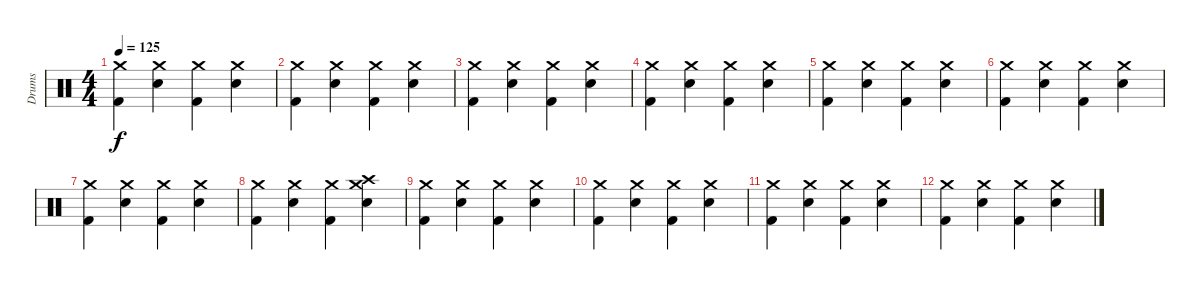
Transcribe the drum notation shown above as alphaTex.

\track ("Drums" "Drums") {instrument percussion}
\staff {score}
\articulation defaults
\ts (4 4)
\tempo 125
\clef neutral
\ks c
("Kick (hit) 2" "Crash medium (hit)").4{dy f} ("Electric Snare (hit)" "Crash medium (hit)").4 ("Kick (hit) 2" "Crash medium (hit)").4 ("Electric Snare (hit)" "Crash medium (hit)").4 |
("Kick (hit) 2" "Crash medium (hit)").4 ("Electric Snare (hit)" "Crash medium (hit)").4 ("Kick (hit) 2" "Crash medium (hit)").4 ("Electric Snare (hit)" "Crash medium (hit)").4 |
("Kick (hit) 2" "Crash medium (hit)").4 ("Electric Snare (hit)" "Crash medium (hit)").4 ("Kick (hit) 2" "Crash medium (hit)").4 ("Electric Snare (hit)" "Crash medium (hit)").4 |
("Kick (hit) 2" "Crash medium (hit)").4 ("Electric Snare (hit)" "Crash medium (hit)").4 ("Kick (hit) 2" "Crash medium (hit)").4 ("Electric Snare (hit)" "Crash medium (hit)").4 |
("Kick (hit) 2" "Crash medium (hit)").4 ("Electric Snare (hit)" "Crash medium (hit)").4 ("Kick (hit) 2" "Crash medium (hit)").4 ("Electric Snare (hit)" "Crash medium (hit)").4 |
("Kick (hit) 2" "Crash medium (hit)").4 ("Electric Snare (hit)" "Crash medium (hit)").4 ("Kick (hit) 2" "Crash medium (hit)").4 ("Electric Snare (hit)" "Crash medium (hit)").4 |
("Kick (hit) 2" "Crash medium (hit)").4 ("Electric Snare (hit)" "Crash medium (hit)").4 ("Kick (hit) 2" "Crash medium (hit)").4 ("Electric Snare (hit)" "Crash medium (hit)").4 |
("Kick (hit) 2" "Crash medium (hit)").4 ("Electric Snare (hit)" "Crash medium (hit)").4 ("Kick (hit) 2" "Crash medium (hit)").4 ("Electric Snare (hit)" "Crash medium (hit)" "Crash high (hit)").4 |
("Kick (hit) 2" "Crash medium (hit)").4 ("Electric Snare (hit)" "Crash medium (hit)").4 ("Kick (hit) 2" "Crash medium (hit)").4 ("Electric Snare (hit)" "Crash medium (hit)").4 |
("Kick (hit) 2" "Crash medium (hit)").4 ("Electric Snare (hit)" "Crash medium (hit)").4 ("Kick (hit) 2" "Crash medium (hit)").4 ("Electric Snare (hit)" "Crash medium (hit)").4 |
("Kick (hit) 2" "Crash medium (hit)").4 ("Electric Snare (hit)" "Crash medium (hit)").4 ("Kick (hit) 2" "Crash medium (hit)").4 ("Electric Snare (hit)" "Crash medium (hit)").4 |
("Kick (hit) 2" "Crash medium (hit)").4 ("Electric Snare (hit)" "Crash medium (hit)").4 ("Kick (hit) 2" "Crash medium (hit)").4 ("Electric Snare (hit)" "Crash medium (hit)").4
